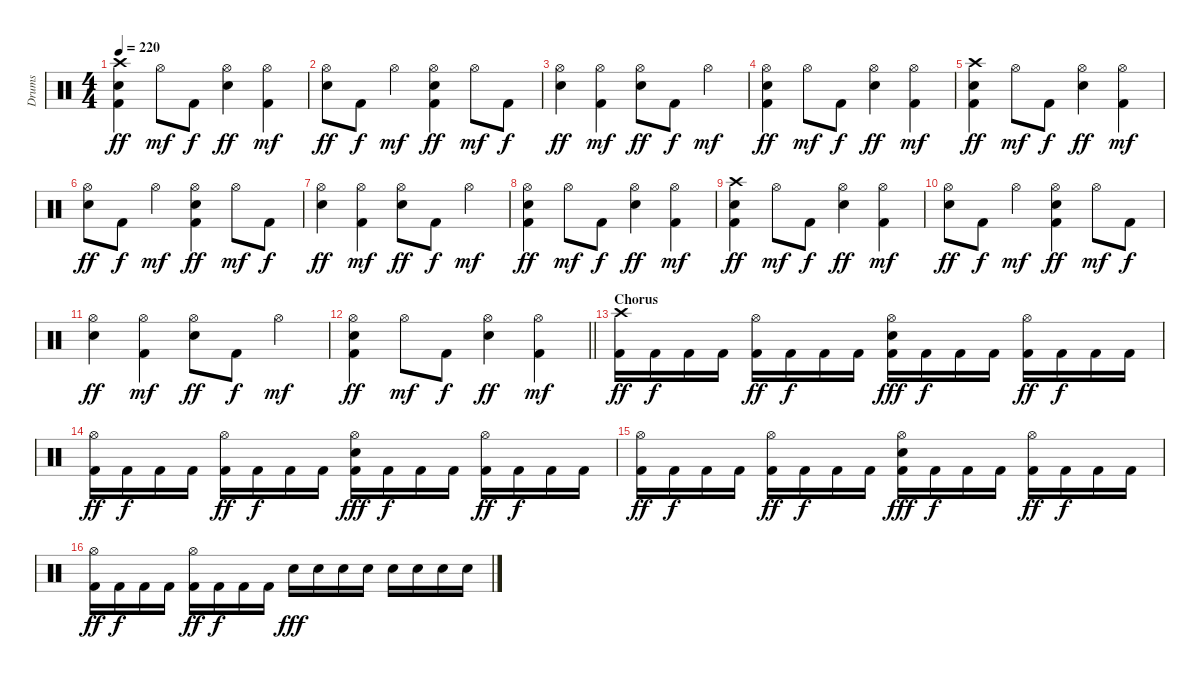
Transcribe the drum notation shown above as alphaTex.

\track ("Drums" "Drums") {instrument percussion}
\staff {score}
\articulation defaults
\ts (4 4)
\tempo 220
\clef neutral
\ks c
("Crash high (hit)" "Snare (hit) 2" "Kick (hit) 2").4{dy ff} "Hi-Hat (open)".8{dy mf} "Kick (hit) 2".8{dy f} ("Hi-Hat (open)" "Snare (hit) 2").4{dy ff} ("Hi-Hat (open)" "Kick (hit) 2").4{dy mf} |
("Hi-Hat (open)" "Snare (hit) 2").8{dy ff} "Kick (hit) 2".8{dy f} "Hi-Hat (open)".4{dy mf} ("Hi-Hat (open)" "Snare (hit) 2" "Kick (hit) 2").4{dy ff} "Hi-Hat (open)".8{dy mf} "Kick (hit) 2".8{dy f} |
("Hi-Hat (open)" "Snare (hit) 2").4{dy ff} ("Hi-Hat (open)" "Kick (hit) 2").4{dy mf} ("Hi-Hat (open)" "Snare (hit) 2").8{dy ff} "Kick (hit) 2".8{dy f} "Hi-Hat (open)".4{dy mf} |
("Hi-Hat (open)" "Snare (hit) 2" "Kick (hit) 2").4{dy ff} "Hi-Hat (open)".8{dy mf} "Kick (hit) 2".8{dy f} ("Hi-Hat (open)" "Snare (hit) 2").4{dy ff} ("Hi-Hat (open)" "Kick (hit) 2").4{dy mf} |
("Crash high (hit)" "Snare (hit) 2" "Kick (hit) 2").4{dy ff} "Hi-Hat (open)".8{dy mf} "Kick (hit) 2".8{dy f} ("Hi-Hat (open)" "Snare (hit) 2").4{dy ff} ("Hi-Hat (open)" "Kick (hit) 2").4{dy mf} |
("Hi-Hat (open)" "Snare (hit) 2").8{dy ff} "Kick (hit) 2".8{dy f} "Hi-Hat (open)".4{dy mf} ("Hi-Hat (open)" "Snare (hit) 2" "Kick (hit) 2").4{dy ff} "Hi-Hat (open)".8{dy mf} "Kick (hit) 2".8{dy f} |
("Hi-Hat (open)" "Snare (hit) 2").4{dy ff} ("Hi-Hat (open)" "Kick (hit) 2").4{dy mf} ("Hi-Hat (open)" "Snare (hit) 2").8{dy ff} "Kick (hit) 2".8{dy f} "Hi-Hat (open)".4{dy mf} |
("Hi-Hat (open)" "Snare (hit) 2" "Kick (hit) 2").4{dy ff} "Hi-Hat (open)".8{dy mf} "Kick (hit) 2".8{dy f} ("Hi-Hat (open)" "Snare (hit) 2").4{dy ff} ("Hi-Hat (open)" "Kick (hit) 2").4{dy mf} |
("Crash high (hit)" "Snare (hit) 2" "Kick (hit) 2").4{dy ff} "Hi-Hat (open)".8{dy mf} "Kick (hit) 2".8{dy f} ("Hi-Hat (open)" "Snare (hit) 2").4{dy ff} ("Hi-Hat (open)" "Kick (hit) 2").4{dy mf} |
("Hi-Hat (open)" "Snare (hit) 2").8{dy ff} "Kick (hit) 2".8{dy f} "Hi-Hat (open)".4{dy mf} ("Hi-Hat (open)" "Snare (hit) 2" "Kick (hit) 2").4{dy ff} "Hi-Hat (open)".8{dy mf} "Kick (hit) 2".8{dy f} |
("Hi-Hat (open)" "Snare (hit) 2").4{dy ff} ("Hi-Hat (open)" "Kick (hit) 2").4{dy mf} ("Hi-Hat (open)" "Snare (hit) 2").8{dy ff} "Kick (hit) 2".8{dy f} "Hi-Hat (open)".4{dy mf} |
\barLineRight lightlight
("Hi-Hat (open)" "Snare (hit) 2" "Kick (hit) 2").4{dy ff} "Hi-Hat (open)".8{dy mf} "Kick (hit) 2".8{dy f} ("Hi-Hat (open)" "Snare (hit) 2").4{dy ff} ("Hi-Hat (open)" "Kick (hit) 2").4{dy mf} |
\section ("" "Chorus")
("Crash high (hit)" "Kick (hit) 2").16{dy ff} "Kick (hit) 2".16{dy f} "Kick (hit) 2".16 "Kick (hit) 2".16 ("Hi-Hat (open)" "Kick (hit) 2").16{dy ff} "Kick (hit) 2".16{dy f} "Kick (hit) 2".16 "Kick (hit) 2".16 ("Hi-Hat (open)" "Snare (hit) 2" "Kick (hit) 2").16{dy fff} "Kick (hit) 2".16{dy f} "Kick (hit) 2".16 "Kick (hit) 2".16 ("Hi-Hat (open)" "Kick (hit) 2").16{dy ff} "Kick (hit) 2".16{dy f} "Kick (hit) 2".16 "Kick (hit) 2".16 |
("Hi-Hat (open)" "Kick (hit) 2").16{dy ff} "Kick (hit) 2".16{dy f} "Kick (hit) 2".16 "Kick (hit) 2".16 ("Hi-Hat (open)" "Kick (hit) 2").16{dy ff} "Kick (hit) 2".16{dy f} "Kick (hit) 2".16 "Kick (hit) 2".16 ("Hi-Hat (open)" "Snare (hit) 2" "Kick (hit) 2").16{dy fff} "Kick (hit) 2".16{dy f} "Kick (hit) 2".16 "Kick (hit) 2".16 ("Hi-Hat (open)" "Kick (hit) 2").16{dy ff} "Kick (hit) 2".16{dy f} "Kick (hit) 2".16 "Kick (hit) 2".16 |
("Hi-Hat (open)" "Kick (hit) 2").16{dy ff} "Kick (hit) 2".16{dy f} "Kick (hit) 2".16 "Kick (hit) 2".16 ("Hi-Hat (open)" "Kick (hit) 2").16{dy ff} "Kick (hit) 2".16{dy f} "Kick (hit) 2".16 "Kick (hit) 2".16 ("Hi-Hat (open)" "Snare (hit) 2" "Kick (hit) 2").16{dy fff} "Kick (hit) 2".16{dy f} "Kick (hit) 2".16 "Kick (hit) 2".16 ("Hi-Hat (open)" "Kick (hit) 2").16{dy ff} "Kick (hit) 2".16{dy f} "Kick (hit) 2".16 "Kick (hit) 2".16 |
("Hi-Hat (open)" "Kick (hit) 2").16{dy ff} "Kick (hit) 2".16{dy f} "Kick (hit) 2".16 "Kick (hit) 2".16 ("Hi-Hat (open)" "Kick (hit) 2").16{dy ff} "Kick (hit) 2".16{dy f} "Kick (hit) 2".16 "Kick (hit) 2".16 "Snare (hit) 2".16{dy fff} "Snare (hit) 2".16 "Snare (hit) 2".16 "Snare (hit) 2".16 "Snare (hit) 2".16 "Snare (hit) 2".16 "Snare (hit) 2".16 "Snare (hit) 2".16
